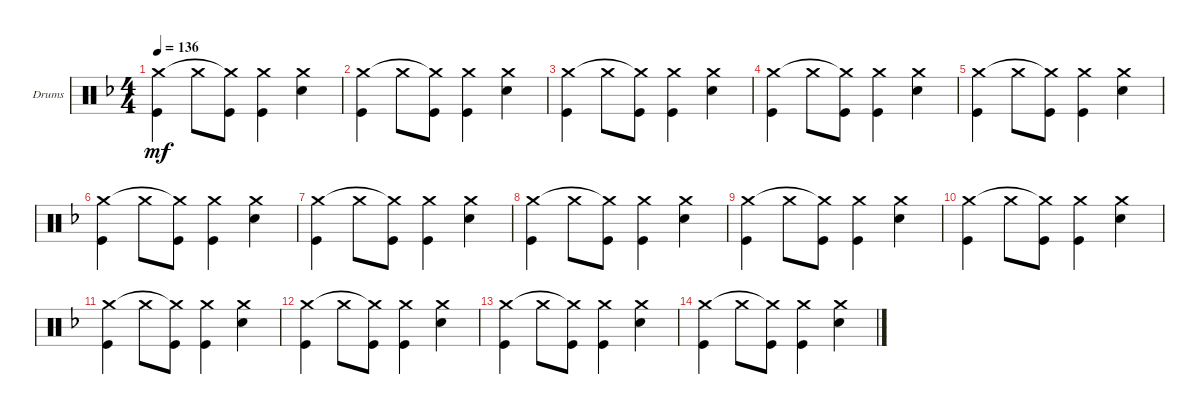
\bracketExtendMode groupsimilarinstruments
\firstSystemTrackNameOrientation horizontal
\otherSystemsTrackNameOrientation horizontal
\track ("Drumkit" "Drums") {instrument percussion}
\staff {score}
\articulation defaults
\ts (4 4)
\tempo 136
\clef neutral
\scale
0.333333
\ks f
("Kick (hit)" "Crash medium (hit)").4{dy mf} "Crash medium (hit)".8 ("Kick (hit)" "Crash medium (hit)"{t}).8 ("Kick (hit)" "Crash medium (hit)").4 ("Snare (hit) 2" "Crash medium (hit)").4 |
\scale
0.333333 ("Kick (hit)" "Crash medium (hit)").4 "Crash medium (hit)".8 ("Kick (hit)" "Crash medium (hit)"{t}).8 ("Kick (hit)" "Crash medium (hit)").4 ("Snare (hit) 2" "Crash medium (hit)").4 |
\scale
0.333333 ("Kick (hit)" "Crash medium (hit)").4 "Crash medium (hit)".8 ("Kick (hit)" "Crash medium (hit)"{t}).8 ("Kick (hit)" "Crash medium (hit)").4 ("Snare (hit) 2" "Crash medium (hit)").4 |
\scale
0.333333 ("Kick (hit)" "Crash medium (hit)").4 "Crash medium (hit)".8 ("Kick (hit)" "Crash medium (hit)"{t}).8 ("Kick (hit)" "Crash medium (hit)").4 ("Snare (hit) 2" "Crash medium (hit)").4 |
\scale
0.333333 ("Kick (hit)" "Crash medium (hit)").4 "Crash medium (hit)".8 ("Kick (hit)" "Crash medium (hit)"{t}).8 ("Kick (hit)" "Crash medium (hit)").4 ("Snare (hit) 2" "Crash medium (hit)").4 |
\scale
0.333333 ("Kick (hit)" "Crash medium (hit)").4 "Crash medium (hit)".8 ("Kick (hit)" "Crash medium (hit)"{t}).8 ("Kick (hit)" "Crash medium (hit)").4 ("Snare (hit) 2" "Crash medium (hit)").4 |
\scale
0.333333 ("Kick (hit)" "Crash medium (hit)").4 "Crash medium (hit)".8 ("Kick (hit)" "Crash medium (hit)"{t}).8 ("Kick (hit)" "Crash medium (hit)").4 ("Snare (hit) 2" "Crash medium (hit)").4 |
\scale
0.333333 ("Kick (hit)" "Crash medium (hit)").4 "Crash medium (hit)".8 ("Kick (hit)" "Crash medium (hit)"{t}).8 ("Kick (hit)" "Crash medium (hit)").4 ("Snare (hit) 2" "Crash medium (hit)").4 |
\scale
0.333333 ("Kick (hit)" "Crash medium (hit)").4 "Crash medium (hit)".8 ("Kick (hit)" "Crash medium (hit)"{t}).8 ("Kick (hit)" "Crash medium (hit)").4 ("Snare (hit) 2" "Crash medium (hit)").4 |
\scale
0.333333 ("Kick (hit)" "Crash medium (hit)").4 "Crash medium (hit)".8 ("Kick (hit)" "Crash medium (hit)"{t}).8 ("Kick (hit)" "Crash medium (hit)").4 ("Snare (hit) 2" "Crash medium (hit)").4 |
\scale
0.333333 ("Kick (hit)" "Crash medium (hit)").4 "Crash medium (hit)".8 ("Kick (hit)" "Crash medium (hit)"{t}).8 ("Kick (hit)" "Crash medium (hit)").4 ("Snare (hit) 2" "Crash medium (hit)").4 |
\scale
0.333333 ("Kick (hit)" "Crash medium (hit)").4 "Crash medium (hit)".8 ("Kick (hit)" "Crash medium (hit)"{t}).8 ("Kick (hit)" "Crash medium (hit)").4 ("Snare (hit) 2" "Crash medium (hit)").4 |
("Kick (hit)" "Crash medium (hit)").4 "Crash medium (hit)".8 ("Kick (hit)" "Crash medium (hit)"{t}).8 ("Kick (hit)" "Crash medium (hit)").4 ("Snare (hit) 2" "Crash medium (hit)").4 |
("Kick (hit)" "Crash medium (hit)").4 "Crash medium (hit)".8 ("Kick (hit)" "Crash medium (hit)"{t}).8 ("Kick (hit)" "Crash medium (hit)").4 ("Snare (hit) 2" "Crash medium (hit)").4
